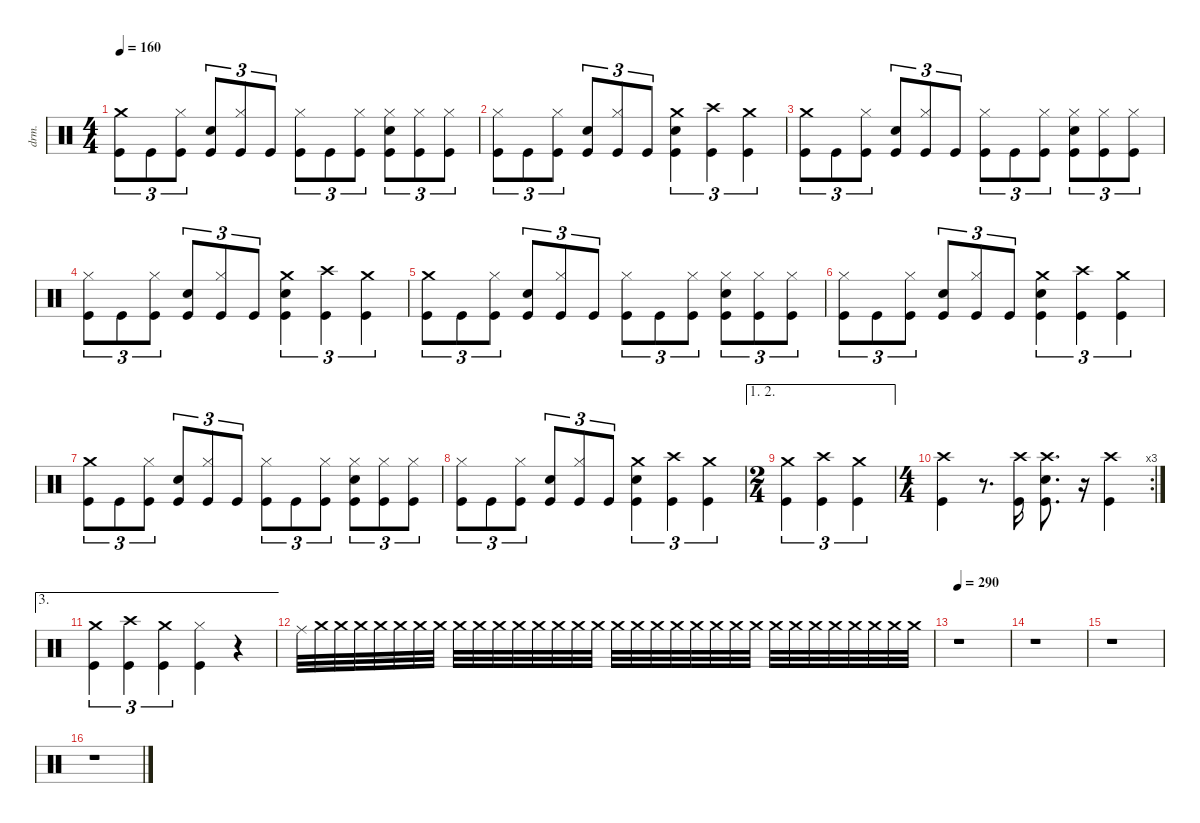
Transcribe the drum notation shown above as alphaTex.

\defaultSystemsLayout 4
\hideDynamics
\bracketExtendMode nobrackets
\otherSystemsTrackNameOrientation horizontal
\track ("Nick Menza" "drm.") {defaultSystemsLayout 4 instrument percussion}
\staff {score}
\articulation defaults
\ts (4 4)
\tempo 160
\clef neutral
\ks c
("Crash medium (hit)" "Kick (hit)").8{tu (3 2) dy f beam Down} "Kick (hit)".8{tu (3 2) beam Down} ("Hi-Hat (closed)" "Kick (hit)").8{tu (3 2) beam Down} ("Snare (hit) 2" "Kick (hit)").8{tu (3 2) beam Up} ("Hi-Hat (closed)" "Kick (hit)").8{tu (3 2) beam Up} "Kick (hit)".8{tu (3 2) beam Up} ("Hi-Hat (closed)" "Kick (hit)").8{tu (3 2) beam Down} "Kick (hit)".8{tu (3 2) beam Down} ("Hi-Hat (closed)" "Kick (hit)").8{tu (3 2) beam Down} ("Hi-Hat (closed)" "Snare (hit) 2" "Kick (hit)").8{tu (3 2) beam Down} ("Hi-Hat (closed)" "Kick (hit)").8{tu (3 2) beam Down} ("Hi-Hat (closed)" "Kick (hit)").8{tu (3 2) beam Down} |
("Hi-Hat (closed)" "Kick (hit)").8{tu (3 2) beam Down} "Kick (hit)".8{tu (3 2) beam Down} ("Hi-Hat (closed)" "Kick (hit)").8{tu (3 2) beam Down} ("Snare (hit) 2" "Kick (hit)").8{tu (3 2) beam Up} ("Hi-Hat (closed)" "Kick (hit)").8{tu (3 2) beam Up} "Kick (hit)".8{tu (3 2) beam Up} ("Crash medium (hit)" "Snare (hit) 2" "Kick (hit)").4{tu (3 2) beam Down} ("Crash high (hit)" "Kick (hit)").4{tu (3 2) beam Down} ("Crash medium (hit)" "Kick (hit)").4{tu (3 2) beam Down} |
("Crash medium (hit)" "Kick (hit)").8{tu (3 2) beam Down} "Kick (hit)".8{tu (3 2) beam Down} ("Hi-Hat (closed)" "Kick (hit)").8{tu (3 2) beam Down} ("Snare (hit) 2" "Kick (hit)").8{tu (3 2) beam Up} ("Hi-Hat (closed)" "Kick (hit)").8{tu (3 2) beam Up} "Kick (hit)".8{tu (3 2) beam Up} ("Hi-Hat (closed)" "Kick (hit)").8{tu (3 2) beam Down} "Kick (hit)".8{tu (3 2) beam Down} ("Hi-Hat (closed)" "Kick (hit)").8{tu (3 2) beam Down} ("Hi-Hat (closed)" "Snare (hit) 2" "Kick (hit)").8{tu (3 2) beam Down} ("Hi-Hat (closed)" "Kick (hit)").8{tu (3 2) beam Down} ("Hi-Hat (closed)" "Kick (hit)").8{tu (3 2) beam Down} |
("Hi-Hat (closed)" "Kick (hit)").8{tu (3 2) beam Down} "Kick (hit)".8{tu (3 2) beam Down} ("Hi-Hat (closed)" "Kick (hit)").8{tu (3 2) beam Down} ("Snare (hit) 2" "Kick (hit)").8{tu (3 2) beam Up} ("Hi-Hat (closed)" "Kick (hit)").8{tu (3 2) beam Up} "Kick (hit)".8{tu (3 2) beam Up} ("Crash medium (hit)" "Snare (hit) 2" "Kick (hit)").4{tu (3 2) beam Down} ("Crash high (hit)" "Kick (hit)").4{tu (3 2) beam Down} ("Crash medium (hit)" "Kick (hit)").4{tu (3 2) beam Down} |
("Crash medium (hit)" "Kick (hit)").8{tu (3 2) beam Down} "Kick (hit)".8{tu (3 2) beam Down} ("Hi-Hat (closed)" "Kick (hit)").8{tu (3 2) beam Down} ("Snare (hit) 2" "Kick (hit)").8{tu (3 2) beam Up} ("Hi-Hat (closed)" "Kick (hit)").8{tu (3 2) beam Up} "Kick (hit)".8{tu (3 2) beam Up} ("Hi-Hat (closed)" "Kick (hit)").8{tu (3 2) beam Down} "Kick (hit)".8{tu (3 2) beam Down} ("Hi-Hat (closed)" "Kick (hit)").8{tu (3 2) beam Down} ("Hi-Hat (closed)" "Snare (hit) 2" "Kick (hit)").8{tu (3 2) beam Down} ("Hi-Hat (closed)" "Kick (hit)").8{tu (3 2) beam Down} ("Hi-Hat (closed)" "Kick (hit)").8{tu (3 2) beam Down} |
("Hi-Hat (closed)" "Kick (hit)").8{tu (3 2) beam Down} "Kick (hit)".8{tu (3 2) beam Down} ("Hi-Hat (closed)" "Kick (hit)").8{tu (3 2) beam Down} ("Snare (hit) 2" "Kick (hit)").8{tu (3 2) beam Up} ("Hi-Hat (closed)" "Kick (hit)").8{tu (3 2) beam Up} "Kick (hit)".8{tu (3 2) beam Up} ("Crash medium (hit)" "Snare (hit) 2" "Kick (hit)").4{tu (3 2) beam Down} ("Crash high (hit)" "Kick (hit)").4{tu (3 2) beam Down} ("Crash medium (hit)" "Kick (hit)").4{tu (3 2) beam Down} |
("Crash medium (hit)" "Kick (hit)").8{tu (3 2) beam Down} "Kick (hit)".8{tu (3 2) beam Down} ("Hi-Hat (closed)" "Kick (hit)").8{tu (3 2) beam Down} ("Snare (hit) 2" "Kick (hit)").8{tu (3 2) beam Up} ("Hi-Hat (closed)" "Kick (hit)").8{tu (3 2) beam Up} "Kick (hit)".8{tu (3 2) beam Up} ("Hi-Hat (closed)" "Kick (hit)").8{tu (3 2) beam Down} "Kick (hit)".8{tu (3 2) beam Down} ("Hi-Hat (closed)" "Kick (hit)").8{tu (3 2) beam Down} ("Hi-Hat (closed)" "Snare (hit) 2" "Kick (hit)").8{tu (3 2) beam Down} ("Hi-Hat (closed)" "Kick (hit)").8{tu (3 2) beam Down} ("Hi-Hat (closed)" "Kick (hit)").8{tu (3 2) beam Down} |
("Hi-Hat (closed)" "Kick (hit)").8{tu (3 2) beam Down} "Kick (hit)".8{tu (3 2) beam Down} ("Hi-Hat (closed)" "Kick (hit)").8{tu (3 2) beam Down} ("Snare (hit) 2" "Kick (hit)").8{tu (3 2) beam Up} ("Hi-Hat (closed)" "Kick (hit)").8{tu (3 2) beam Up} "Kick (hit)".8{tu (3 2) beam Up} ("Crash medium (hit)" "Snare (hit) 2" "Kick (hit)").4{tu (3 2) beam Down} ("Crash high (hit)" "Kick (hit)").4{tu (3 2) beam Down} ("Crash medium (hit)" "Kick (hit)").4{tu (3 2) beam Down} |
\ae (1 2)
\ts (2 4)
\beaming (8 2 2)
("Crash medium (hit)" "Kick (hit)").4{tu (3 2) beam Down} ("Crash high (hit)" "Kick (hit)").4{tu (3 2) beam Down} ("Crash medium (hit)" "Kick (hit)").4{tu (3 2) beam Down} |
\rc 3
\ts (4 4)
\beaming (8 2 2 2 2)
("Crash high (hit)" "Kick (hit)").4{beam Down} r.8{d beam Down} ("Crash high (hit)" "Kick (hit)").16{beam Down} ("Crash high (hit)" "Snare (hit) 2" "Kick (hit)").8{d beam Down} r.16{beam Down} ("Crash high (hit)" "Kick (hit)").4{beam Down} |
\ae 3
("Crash medium (hit)" "Kick (hit)").4{tu (3 2) beam Down} ("Crash high (hit)" "Kick (hit)").4{tu (3 2) beam Down} ("Crash medium (hit)" "Kick (hit)").4{tu (3 2) beam Down} ("Hi-Hat (closed)" "Kick (hit)").4{beam Down} r.4{beam Down} |
"Ride (middle)".32{dy ppp beam Down} "Crash medium (hit)".32{beam Down} "Crash medium (hit)".32{beam Down} "Crash medium (hit)".32{beam Down} "Crash medium (hit)".32{beam Down} "Crash medium (hit)".32{dy pp beam Down} "Crash medium (hit)".32{beam Down} "Crash medium (hit)".32{beam Down} "Crash medium (hit)".32{beam Down} "Crash medium (hit)".32{beam Down} "Crash medium (hit)".32{dy p beam Down} "Crash medium (hit)".32{beam Down} "Crash medium (hit)".32{beam Down} "Crash medium (hit)".32{beam Down} "Crash medium (hit)".32{beam Down} "Crash medium (hit)".32{dy mp beam Down} "Crash medium (hit)".32{beam Down} "Crash medium (hit)".32{beam Down} "Crash medium (hit)".32{beam Down} "Crash medium (hit)".32{beam Down} "Crash medium (hit)".32{beam Down} "Crash medium (hit)".32{dy mf beam Down} "Crash medium (hit)".32{beam Down} "Crash medium (hit)".32{beam Down} "Crash medium (hit)".32{beam Down} "Crash medium (hit)".32{beam Down} "Crash medium (hit)".32{beam Down} "Crash medium (hit)".32{dy f beam Down} "Crash medium (hit)".32{beam Down} "Crash medium (hit)".32{beam Down} "Crash medium (hit)".32{beam Down} "Crash medium (hit)".32{beam Down} |
\tempo 290
r.1{beam Down} |
r.1{beam Down} |
r.1{beam Down} |
r.1{beam Down}
